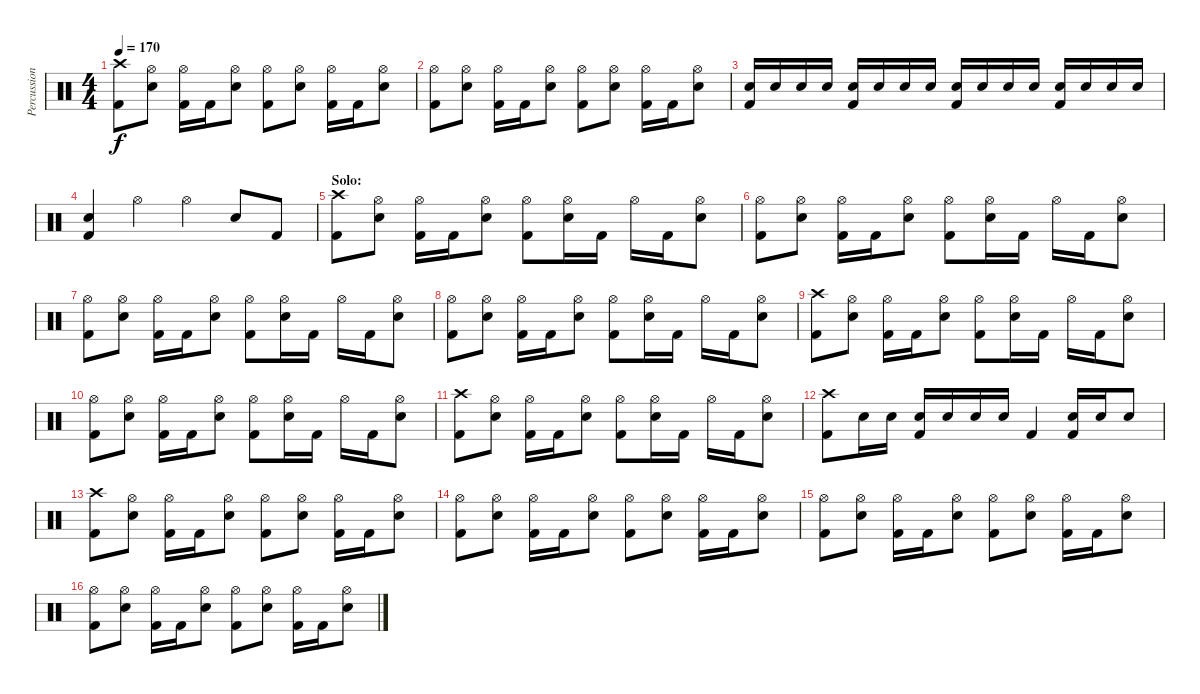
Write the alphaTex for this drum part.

\track ("Percussion" "Percussion") {instrument percussion}
\staff {score}
\articulation defaults
\ts (4 4)
\tempo 170
\clef neutral
\ks c
("Crash high (hit)" "Kick (hit) 2").8{dy f} ("Hi-Hat (open)" "Electric Snare (hit)").8 ("Hi-Hat (open)" "Kick (hit) 2").16 "Kick (hit) 2".16 ("Hi-Hat (open)" "Electric Snare (hit)").8 ("Hi-Hat (open)" "Kick (hit) 2").8 ("Hi-Hat (open)" "Electric Snare (hit)").8 ("Hi-Hat (open)" "Kick (hit) 2").16 "Kick (hit) 2".16 ("Hi-Hat (open)" "Electric Snare (hit)").8 |
("Hi-Hat (open)" "Kick (hit) 2").8 ("Hi-Hat (open)" "Electric Snare (hit)").8 ("Hi-Hat (open)" "Kick (hit) 2").16 "Kick (hit) 2".16 ("Hi-Hat (open)" "Electric Snare (hit)").8 ("Hi-Hat (open)" "Kick (hit) 2").8 ("Hi-Hat (open)" "Electric Snare (hit)").8 ("Hi-Hat (open)" "Kick (hit) 2").16 "Kick (hit) 2".16 ("Hi-Hat (open)" "Electric Snare (hit)").8 |
("Electric Snare (hit)" "Kick (hit) 2").16 "Electric Snare (hit)".16 "Electric Snare (hit)".16 "Electric Snare (hit)".16 ("Electric Snare (hit)" "Kick (hit) 2").16 "Electric Snare (hit)".16 "Electric Snare (hit)".16 "Electric Snare (hit)".16 ("Electric Snare (hit)" "Kick (hit) 2").16 "Electric Snare (hit)".16 "Electric Snare (hit)".16 "Electric Snare (hit)".16 ("Electric Snare (hit)" "Kick (hit) 2").16 "Electric Snare (hit)".16 "Electric Snare (hit)".16 "Electric Snare (hit)".16 |
("Electric Snare (hit)" "Kick (hit) 2").4 "Hi-Hat (open)".4 "Hi-Hat (open)".4 "Electric Snare (hit)".8 "Kick (hit) 2".8 |
\section ("" "Solo:")
("Crash high (hit)" "Kick (hit) 2").8 ("Hi-Hat (open)" "Electric Snare (hit)").8 ("Hi-Hat (open)" "Kick (hit) 2").16 "Kick (hit) 2".16 ("Hi-Hat (open)" "Electric Snare (hit)").8 ("Hi-Hat (open)" "Kick (hit) 2").8 ("Hi-Hat (open)" "Electric Snare (hit)").16 "Kick (hit) 2".16 "Hi-Hat (open)".16 "Kick (hit) 2".16 ("Hi-Hat (open)" "Electric Snare (hit)").8 |
("Hi-Hat (open)" "Kick (hit) 2").8 ("Hi-Hat (open)" "Electric Snare (hit)").8 ("Hi-Hat (open)" "Kick (hit) 2").16 "Kick (hit) 2".16 ("Hi-Hat (open)" "Electric Snare (hit)").8 ("Hi-Hat (open)" "Kick (hit) 2").8 ("Hi-Hat (open)" "Electric Snare (hit)").16 "Kick (hit) 2".16 "Hi-Hat (open)".16 "Kick (hit) 2".16 ("Hi-Hat (open)" "Electric Snare (hit)").8 |
("Hi-Hat (open)" "Kick (hit) 2").8 ("Hi-Hat (open)" "Electric Snare (hit)").8 ("Hi-Hat (open)" "Kick (hit) 2").16 "Kick (hit) 2".16 ("Hi-Hat (open)" "Electric Snare (hit)").8 ("Hi-Hat (open)" "Kick (hit) 2").8 ("Hi-Hat (open)" "Electric Snare (hit)").16 "Kick (hit) 2".16 "Hi-Hat (open)".16 "Kick (hit) 2".16 ("Hi-Hat (open)" "Electric Snare (hit)").8 |
("Hi-Hat (open)" "Kick (hit) 2").8 ("Hi-Hat (open)" "Electric Snare (hit)").8 ("Hi-Hat (open)" "Kick (hit) 2").16 "Kick (hit) 2".16 ("Hi-Hat (open)" "Electric Snare (hit)").8 ("Hi-Hat (open)" "Kick (hit) 2").8 ("Hi-Hat (open)" "Electric Snare (hit)").16 "Kick (hit) 2".16 "Hi-Hat (open)".16 "Kick (hit) 2".16 ("Hi-Hat (open)" "Electric Snare (hit)").8 |
("Crash high (hit)" "Kick (hit) 2").8 ("Hi-Hat (open)" "Electric Snare (hit)").8 ("Hi-Hat (open)" "Kick (hit) 2").16 "Kick (hit) 2".16 ("Hi-Hat (open)" "Electric Snare (hit)").8 ("Hi-Hat (open)" "Kick (hit) 2").8 ("Hi-Hat (open)" "Electric Snare (hit)").16 "Kick (hit) 2".16 "Hi-Hat (open)".16 "Kick (hit) 2".16 ("Hi-Hat (open)" "Electric Snare (hit)").8 |
("Hi-Hat (open)" "Kick (hit) 2").8 ("Hi-Hat (open)" "Electric Snare (hit)").8 ("Hi-Hat (open)" "Kick (hit) 2").16 "Kick (hit) 2".16 ("Hi-Hat (open)" "Electric Snare (hit)").8 ("Hi-Hat (open)" "Kick (hit) 2").8 ("Hi-Hat (open)" "Electric Snare (hit)").16 "Kick (hit) 2".16 "Hi-Hat (open)".16 "Kick (hit) 2".16 ("Hi-Hat (open)" "Electric Snare (hit)").8 |
("Crash high (hit)" "Kick (hit) 2").8 ("Hi-Hat (open)" "Electric Snare (hit)").8 ("Hi-Hat (open)" "Kick (hit) 2").16 "Kick (hit) 2".16 ("Hi-Hat (open)" "Electric Snare (hit)").8 ("Hi-Hat (open)" "Kick (hit) 2").8 ("Hi-Hat (open)" "Electric Snare (hit)").16 "Kick (hit) 2".16 "Hi-Hat (open)".16 "Kick (hit) 2".16 ("Hi-Hat (open)" "Electric Snare (hit)").8 |
("Crash high (hit)" "Kick (hit) 2").8 "Electric Snare (hit)".16 "Electric Snare (hit)".16 ("Electric Snare (hit)" "Kick (hit) 2").16 "Electric Snare (hit)".16 "Electric Snare (hit)".16 "Electric Snare (hit)".16 "Kick (hit) 2".4 ("Electric Snare (hit)" "Kick (hit) 2").16 "Electric Snare (hit)".16 "Electric Snare (hit)".8 |
("Crash high (hit)" "Kick (hit) 2").8 ("Hi-Hat (open)" "Electric Snare (hit)").8 ("Hi-Hat (open)" "Kick (hit) 2").16 "Kick (hit) 2".16 ("Hi-Hat (open)" "Electric Snare (hit)").8 ("Hi-Hat (open)" "Kick (hit) 2").8 ("Hi-Hat (open)" "Electric Snare (hit)").8 ("Hi-Hat (open)" "Kick (hit) 2").16 "Kick (hit) 2".16 ("Hi-Hat (open)" "Electric Snare (hit)").8 |
("Hi-Hat (open)" "Kick (hit) 2").8 ("Hi-Hat (open)" "Electric Snare (hit)").8 ("Hi-Hat (open)" "Kick (hit) 2").16 "Kick (hit) 2".16 ("Hi-Hat (open)" "Electric Snare (hit)").8 ("Hi-Hat (open)" "Kick (hit) 2").8 ("Hi-Hat (open)" "Electric Snare (hit)").8 ("Hi-Hat (open)" "Kick (hit) 2").16 "Kick (hit) 2".16 ("Hi-Hat (open)" "Electric Snare (hit)").8 |
("Hi-Hat (open)" "Kick (hit) 2").8 ("Hi-Hat (open)" "Electric Snare (hit)").8 ("Hi-Hat (open)" "Kick (hit) 2").16 "Kick (hit) 2".16 ("Hi-Hat (open)" "Electric Snare (hit)").8 ("Hi-Hat (open)" "Kick (hit) 2").8 ("Hi-Hat (open)" "Electric Snare (hit)").8 ("Hi-Hat (open)" "Kick (hit) 2").16 "Kick (hit) 2".16 ("Hi-Hat (open)" "Electric Snare (hit)").8 |
("Hi-Hat (open)" "Kick (hit) 2").8 ("Hi-Hat (open)" "Electric Snare (hit)").8 ("Hi-Hat (open)" "Kick (hit) 2").16 "Kick (hit) 2".16 ("Hi-Hat (open)" "Electric Snare (hit)").8 ("Hi-Hat (open)" "Kick (hit) 2").8 ("Hi-Hat (open)" "Electric Snare (hit)").8 ("Hi-Hat (open)" "Kick (hit) 2").16 "Kick (hit) 2".16 ("Hi-Hat (open)" "Electric Snare (hit)").8
